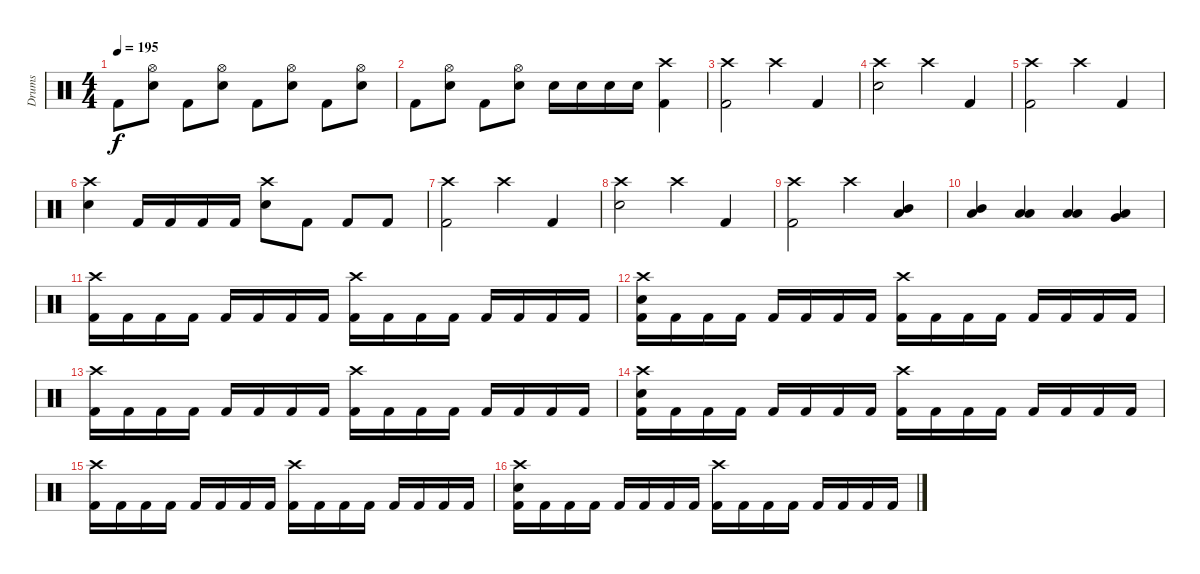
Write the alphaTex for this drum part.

\track ("Drums" "Drums") {instrument percussion}
\staff {score}
\articulation defaults
\ts (4 4)
\tempo 195
\clef neutral
\ks c "Kick (hit) 2".8{dy f}
("Hi-Hat (open)" "Snare (hit) 2").8 "Kick (hit) 2".8 ("Hi-Hat (open)" "Snare (hit) 2").8 "Kick (hit) 2".8 ("Hi-Hat (open)" "Snare (hit) 2").8 "Kick (hit) 2".8 ("Hi-Hat (open)" "Snare (hit) 2").8 |
"Kick (hit) 2".8 ("Hi-Hat (open)" "Snare (hit) 2").8 "Kick (hit) 2".8 ("Hi-Hat (open)" "Snare (hit) 2").8 "Snare (hit) 2".16 "Snare (hit) 2".16 "Snare (hit) 2".16 "Snare (hit) 2".16 ("Crash high (hit)" "Kick (hit) 2").4 |
("Crash high (hit)" "Kick (hit) 2").2 "Crash high (hit)".4 "Kick (hit) 2".4 |
("Crash high (hit)" "Snare (hit) 2").2 "Crash high (hit)".4 "Kick (hit) 2".4 |
("Crash high (hit)" "Kick (hit) 2").2 "Crash high (hit)".4 "Kick (hit) 2".4 |
("Crash high (hit)" "Snare (hit) 2").4 "Kick (hit) 2".16 "Kick (hit) 2".16 "Kick (hit) 2".16 "Kick (hit) 2".16 ("Crash high (hit)" "Snare (hit) 2").8 "Kick (hit) 2".8 "Kick (hit) 2".8 "Kick (hit) 2".8 |
("Crash high (hit)" "Kick (hit) 2").2 "Crash high (hit)".4 "Kick (hit) 2".4 |
("Crash high (hit)" "Snare (hit) 2").2 "Crash high (hit)".4 "Kick (hit) 2".4 |
("Crash high (hit)" "Kick (hit) 2").2 "Crash high (hit)".4 ("Mid Tom (hit)" "Low Floor Tom (hit)").4 |
("Mid Tom (hit)" "Low Floor Tom (hit)").4 ("Low Tom (hit)" "Low Floor Tom (hit)").4 ("Low Tom (hit)" "Low Floor Tom (hit)").4 ("Very Low Tom (hit)" "Low Floor Tom (hit)").4 |
("Crash high (hit)" "Kick (hit) 2").16 "Kick (hit) 2".16 "Kick (hit) 2".16 "Kick (hit) 2".16 "Kick (hit) 2".16 "Kick (hit) 2".16 "Kick (hit) 2".16 "Kick (hit) 2".16 ("Crash high (hit)" "Kick (hit) 2").16 "Kick (hit) 2".16 "Kick (hit) 2".16 "Kick (hit) 2".16 "Kick (hit) 2".16 "Kick (hit) 2".16 "Kick (hit) 2".16 "Kick (hit) 2".16 |
("Crash high (hit)" "Snare (hit) 2" "Kick (hit) 2").16 "Kick (hit) 2".16 "Kick (hit) 2".16 "Kick (hit) 2".16 "Kick (hit) 2".16 "Kick (hit) 2".16 "Kick (hit) 2".16 "Kick (hit) 2".16 ("Crash high (hit)" "Kick (hit) 2").16 "Kick (hit) 2".16 "Kick (hit) 2".16 "Kick (hit) 2".16 "Kick (hit) 2".16 "Kick (hit) 2".16 "Kick (hit) 2".16 "Kick (hit) 2".16 |
("Crash high (hit)" "Kick (hit) 2").16 "Kick (hit) 2".16 "Kick (hit) 2".16 "Kick (hit) 2".16 "Kick (hit) 2".16 "Kick (hit) 2".16 "Kick (hit) 2".16 "Kick (hit) 2".16 ("Crash high (hit)" "Kick (hit) 2").16 "Kick (hit) 2".16 "Kick (hit) 2".16 "Kick (hit) 2".16 "Kick (hit) 2".16 "Kick (hit) 2".16 "Kick (hit) 2".16 "Kick (hit) 2".16 |
("Crash high (hit)" "Snare (hit) 2" "Kick (hit) 2").16 "Kick (hit) 2".16 "Kick (hit) 2".16 "Kick (hit) 2".16 "Kick (hit) 2".16 "Kick (hit) 2".16 "Kick (hit) 2".16 "Kick (hit) 2".16 ("Crash high (hit)" "Kick (hit) 2").16 "Kick (hit) 2".16 "Kick (hit) 2".16 "Kick (hit) 2".16 "Kick (hit) 2".16 "Kick (hit) 2".16 "Kick (hit) 2".16 "Kick (hit) 2".16 |
("Crash high (hit)" "Kick (hit) 2").16 "Kick (hit) 2".16 "Kick (hit) 2".16 "Kick (hit) 2".16 "Kick (hit) 2".16 "Kick (hit) 2".16 "Kick (hit) 2".16 "Kick (hit) 2".16 ("Crash high (hit)" "Kick (hit) 2").16 "Kick (hit) 2".16 "Kick (hit) 2".16 "Kick (hit) 2".16 "Kick (hit) 2".16 "Kick (hit) 2".16 "Kick (hit) 2".16 "Kick (hit) 2".16 |
("Crash high (hit)" "Snare (hit) 2" "Kick (hit) 2").16 "Kick (hit) 2".16 "Kick (hit) 2".16 "Kick (hit) 2".16 "Kick (hit) 2".16 "Kick (hit) 2".16 "Kick (hit) 2".16 "Kick (hit) 2".16 ("Crash high (hit)" "Kick (hit) 2").16 "Kick (hit) 2".16 "Kick (hit) 2".16 "Kick (hit) 2".16 "Kick (hit) 2".16 "Kick (hit) 2".16 "Kick (hit) 2".16 "Kick (hit) 2".16
